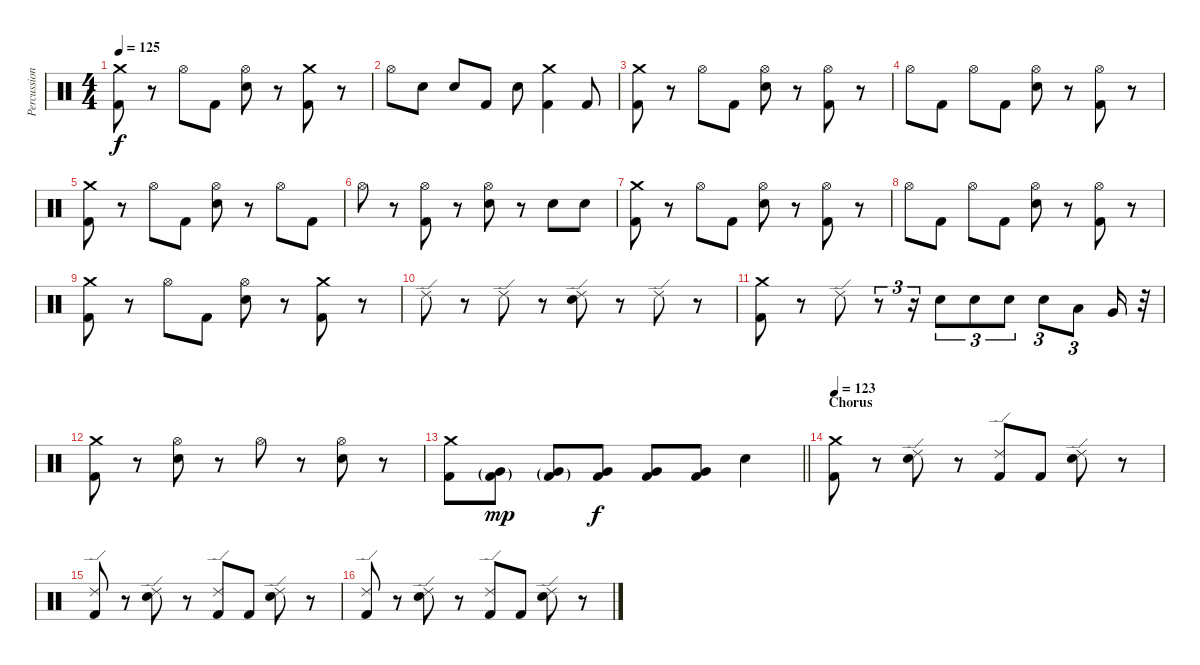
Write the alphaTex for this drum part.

\track ("Percussion" "Percussion") {instrument percussion}
\staff {score}
\articulation defaults
\ts (4 4)
\tempo 125
\clef neutral
\ks c
("Crash medium (hit)" "Kick (hit) 2").8{dy f} r.8 "Hi-Hat (open)".8 "Kick (hit) 2".8 ("Hi-Hat (open)" "Electric Snare (hit)").8 r.8 ("Crash medium (hit)" "Kick (hit) 2").8 r.8 |
"Hi-Hat (open)".8 "Electric Snare (hit)".8 "Electric Snare (hit)".8 "Kick (hit) 2".8 "Electric Snare (hit)".8 ("Crash medium (hit)" "Kick (hit) 2").4 "Kick (hit) 2".8 |
("Crash medium (hit)" "Kick (hit) 2").8 r.8 "Hi-Hat (open)".8 "Kick (hit) 2".8 ("Hi-Hat (open)" "Electric Snare (hit)").8 r.8 ("Hi-Hat (open)" "Kick (hit) 2").8 r.8 |
"Hi-Hat (open)".8 "Kick (hit) 2".8 "Hi-Hat (open)".8 "Kick (hit) 2".8 ("Hi-Hat (open)" "Electric Snare (hit)").8 r.8 ("Hi-Hat (open)" "Kick (hit) 2").8 r.8 |
("Crash medium (hit)" "Kick (hit) 2").8 r.8 "Hi-Hat (open)".8 "Kick (hit) 2".8 ("Hi-Hat (open)" "Electric Snare (hit)").8 r.8 "Hi-Hat (open)".8 "Kick (hit) 2".8 |
"Hi-Hat (open)".8 r.8 ("Hi-Hat (open)" "Kick (hit) 2").8 r.8 ("Hi-Hat (open)" "Electric Snare (hit)").8 r.8 "Electric Snare (hit)".8 "Electric Snare (hit)".8 |
("Crash medium (hit)" "Kick (hit) 2").8 r.8 "Hi-Hat (open)".8 "Kick (hit) 2".8 ("Hi-Hat (open)" "Electric Snare (hit)").8 r.8 ("Hi-Hat (open)" "Kick (hit) 2").8 r.8 |
"Hi-Hat (open)".8 "Kick (hit) 2".8 "Hi-Hat (open)".8 "Kick (hit) 2".8 ("Hi-Hat (open)" "Electric Snare (hit)").8 r.8 ("Hi-Hat (open)" "Kick (hit) 2").8 r.8 |
("Crash medium (hit)" "Kick (hit) 2").8 r.8 "Hi-Hat (open)".8 "Kick (hit) 2".8 ("Hi-Hat (open)" "Electric Snare (hit)").8 r.8 ("Crash medium (hit)" "Kick (hit) 2").8 r.8 |
"Ride (edge) 2".8 r.8 "Ride (edge) 2".8 r.8 ("Ride (edge) 2" "Electric Snare (hit)").8 r.8 "Ride (edge) 2".8 r.8 |
("Crash medium (hit)" "Kick (hit) 2").8 r.8 "Ride (edge) 2".8 r.8{tu (3 2)} r.16{tu (3 2)} "Electric Snare (hit)".8{tu (3 2)} "Electric Snare (hit)".8{tu (3 2)} "Electric Snare (hit)".8{tu (3 2)} "Electric Snare (hit)".8{tu (3 2)} "Low Tom (hit)".8{tu (3 2)} "Very Low Tom (hit)".16 r.32{tu (3 2)} |
("Crash medium (hit)" "Kick (hit) 2").8 r.8 ("Hi-Hat (open)" "Electric Snare (hit)").8 r.8 "Hi-Hat (open)".8 r.8 ("Hi-Hat (open)" "Electric Snare (hit)").8 r.8 |
\barLineRight lightlight
("Crash medium (hit)" "Kick (hit) 2").8 ("Very Low Tom (hit)"{g} "Kick (hit) 2"{g}).8{dy mp} ("Very Low Tom (hit)"{g} "Kick (hit) 2"{g}).8 ("Very Low Tom (hit)" "Kick (hit) 2").8{dy f} ("Very Low Tom (hit)" "Kick (hit) 2").8 ("Very Low Tom (hit)" "Kick (hit) 2").8 "Electric Snare (hit)".4 |
\section ("" "Chorus")
\tempo 123
("Crash medium (hit)" "Kick (hit) 2").8 r.8 ("Ride (edge) 2" "Electric Snare (hit)").8 r.8 ("Ride (edge) 2" "Kick (hit) 2").8 "Kick (hit) 2".8 ("Ride (edge) 2" "Electric Snare (hit)").8 r.8 |
("Ride (edge) 2" "Kick (hit) 2").8 r.8 ("Ride (edge) 2" "Electric Snare (hit)").8 r.8 ("Ride (edge) 2" "Kick (hit) 2").8 "Kick (hit) 2".8 ("Ride (edge) 2" "Electric Snare (hit)").8 r.8 |
("Ride (edge) 2" "Kick (hit) 2").8 r.8 ("Ride (edge) 2" "Electric Snare (hit)").8 r.8 ("Ride (edge) 2" "Kick (hit) 2").8 "Kick (hit) 2".8 ("Ride (edge) 2" "Electric Snare (hit)").8 r.8
